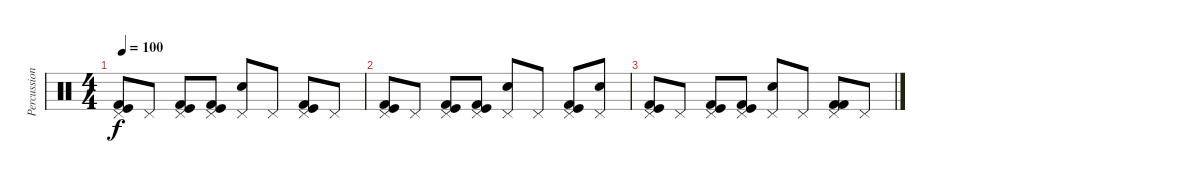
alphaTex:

\track ("Percussion" "Percussion") {instrument percussion}
\staff {score}
\articulation defaults
\ts (4 4)
\tempo 100
\clef neutral
\ks c
("Kick (hit)" "Kick (hit) 2" "Pedal Hi-Hat (hit)").8{dy f} "Pedal Hi-Hat (hit)".8 ("Kick (hit)" "Kick (hit) 2" "Pedal Hi-Hat (hit)").8 ("Kick (hit)" "Kick (hit) 2" "Pedal Hi-Hat (hit)").8 ("Electric Snare (hit)" "Pedal Hi-Hat (hit)").8 "Pedal Hi-Hat (hit)".8 ("Kick (hit)" "Kick (hit) 2" "Pedal Hi-Hat (hit)").8 "Pedal Hi-Hat (hit)".8 |
("Kick (hit)" "Kick (hit) 2" "Pedal Hi-Hat (hit)").8 "Pedal Hi-Hat (hit)".8 ("Kick (hit)" "Kick (hit) 2" "Pedal Hi-Hat (hit)").8 ("Kick (hit)" "Kick (hit) 2" "Pedal Hi-Hat (hit)").8 ("Electric Snare (hit)" "Pedal Hi-Hat (hit)").8 "Pedal Hi-Hat (hit)".8 ("Kick (hit)" "Kick (hit) 2" "Pedal Hi-Hat (hit)").8 ("Electric Snare (hit)" "Pedal Hi-Hat (hit)").8 |
("Kick (hit)" "Kick (hit) 2" "Pedal Hi-Hat (hit)").8 "Pedal Hi-Hat (hit)".8 ("Kick (hit)" "Kick (hit) 2" "Pedal Hi-Hat (hit)").8 ("Kick (hit)" "Kick (hit) 2" "Pedal Hi-Hat (hit)").8 ("Electric Snare (hit)" "Pedal Hi-Hat (hit)").8 "Pedal Hi-Hat (hit)".8 ("Kick (hit) 2" "Kick (hit) 2" "Pedal Hi-Hat (hit)").8 "Pedal Hi-Hat (hit)".8
